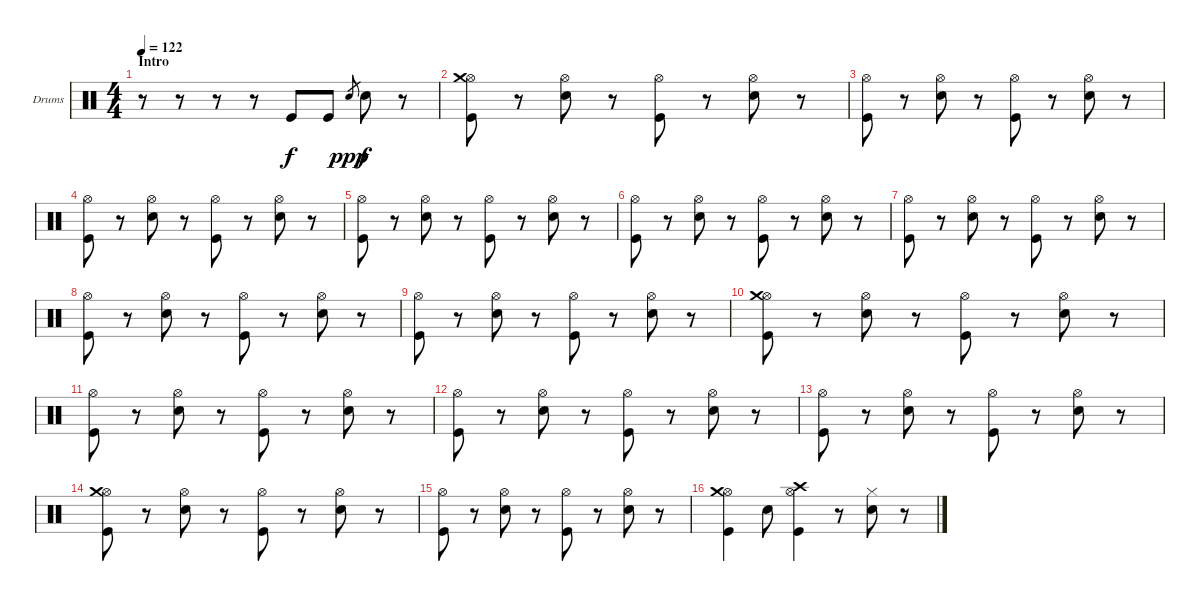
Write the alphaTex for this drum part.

\bracketExtendMode groupsimilarinstruments
\firstSystemTrackNameOrientation horizontal
\otherSystemsTrackNameOrientation horizontal
\track ("Drumkit" "Drums") {instrument percussion}
\staff {score}
\articulation defaults
\ts (4 4)
\section ("" "Intro")
\tempo 122
\clef neutral
\ks c
r.8{dy f} r.8 r.8 r.8 "Kick (hit)".8 "Kick (hit)".8 "Snare (hit) 2".8{gr dy ppp} "Snare (hit) 2".8{dy f} r.8 |
("Kick (hit)" "Hi-Hat (open)" "Crash medium (hit)").8 r.8 ("Snare (hit) 2" "Hi-Hat (open)").8 r.8 ("Kick (hit)" "Hi-Hat (open)").8 r.8 ("Snare (hit) 2" "Hi-Hat (open)").8 r.8 |
("Kick (hit)" "Hi-Hat (open)").8 r.8 ("Snare (hit) 2" "Hi-Hat (open)").8 r.8 ("Kick (hit)" "Hi-Hat (open)").8 r.8 ("Snare (hit) 2" "Hi-Hat (open)").8 r.8 |
("Kick (hit)" "Hi-Hat (open)").8 r.8 ("Snare (hit) 2" "Hi-Hat (open)").8 r.8 ("Kick (hit)" "Hi-Hat (open)").8 r.8 ("Snare (hit) 2" "Hi-Hat (open)").8 r.8 |
("Kick (hit)" "Hi-Hat (open)").8 r.8 ("Snare (hit) 2" "Hi-Hat (open)").8 r.8 ("Kick (hit)" "Hi-Hat (open)").8 r.8 ("Snare (hit) 2" "Hi-Hat (open)").8 r.8 |
("Kick (hit)" "Hi-Hat (open)").8 r.8 ("Snare (hit) 2" "Hi-Hat (open)").8 r.8 ("Kick (hit)" "Hi-Hat (open)").8 r.8 ("Snare (hit) 2" "Hi-Hat (open)").8 r.8 |
("Kick (hit)" "Hi-Hat (open)").8 r.8 ("Snare (hit) 2" "Hi-Hat (open)").8 r.8 ("Kick (hit)" "Hi-Hat (open)").8 r.8 ("Snare (hit) 2" "Hi-Hat (open)").8 r.8 |
("Kick (hit)" "Hi-Hat (open)").8 r.8 ("Snare (hit) 2" "Hi-Hat (open)").8 r.8 ("Kick (hit)" "Hi-Hat (open)").8 r.8 ("Snare (hit) 2" "Hi-Hat (open)").8 r.8 |
("Kick (hit)" "Hi-Hat (open)").8 r.8 ("Snare (hit) 2" "Hi-Hat (open)").8 r.8 ("Kick (hit)" "Hi-Hat (open)").8 r.8 ("Snare (hit) 2" "Hi-Hat (open)").8 r.8 |
("Kick (hit)" "Hi-Hat (open)" "Crash medium (hit)").8 r.8 ("Snare (hit) 2" "Hi-Hat (open)").8 r.8 ("Kick (hit)" "Hi-Hat (open)").8 r.8 ("Snare (hit) 2" "Hi-Hat (open)").8 r.8 |
("Kick (hit)" "Hi-Hat (open)").8 r.8 ("Snare (hit) 2" "Hi-Hat (open)").8 r.8 ("Kick (hit)" "Hi-Hat (open)").8 r.8 ("Snare (hit) 2" "Hi-Hat (open)").8 r.8 |
("Kick (hit)" "Hi-Hat (open)").8 r.8 ("Snare (hit) 2" "Hi-Hat (open)").8 r.8 ("Kick (hit)" "Hi-Hat (open)").8 r.8 ("Snare (hit) 2" "Hi-Hat (open)").8 r.8 |
("Kick (hit)" "Hi-Hat (open)").8 r.8 ("Snare (hit) 2" "Hi-Hat (open)").8 r.8 ("Kick (hit)" "Hi-Hat (open)").8 r.8 ("Snare (hit) 2" "Hi-Hat (open)").8 r.8 |
("Kick (hit)" "Hi-Hat (open)" "Crash medium (hit)").8 r.8 ("Snare (hit) 2" "Hi-Hat (open)").8 r.8 ("Kick (hit)" "Hi-Hat (open)").8 r.8 ("Snare (hit) 2" "Hi-Hat (open)").8 r.8 |
("Kick (hit)" "Hi-Hat (open)").8 r.8 ("Snare (hit) 2" "Hi-Hat (open)").8 r.8 ("Kick (hit)" "Hi-Hat (open)").8 r.8 ("Snare (hit) 2" "Hi-Hat (open)").8 r.8 |
("Kick (hit)" "Hi-Hat (open)" "Crash medium (hit)").4 "Snare (hit) 2".8 ("Kick (hit)" "Hi-Hat (open)" "Crash high (hit)").4 r.8 ("Snare (hit) 2" "Hi-Hat (closed)").8 r.8
